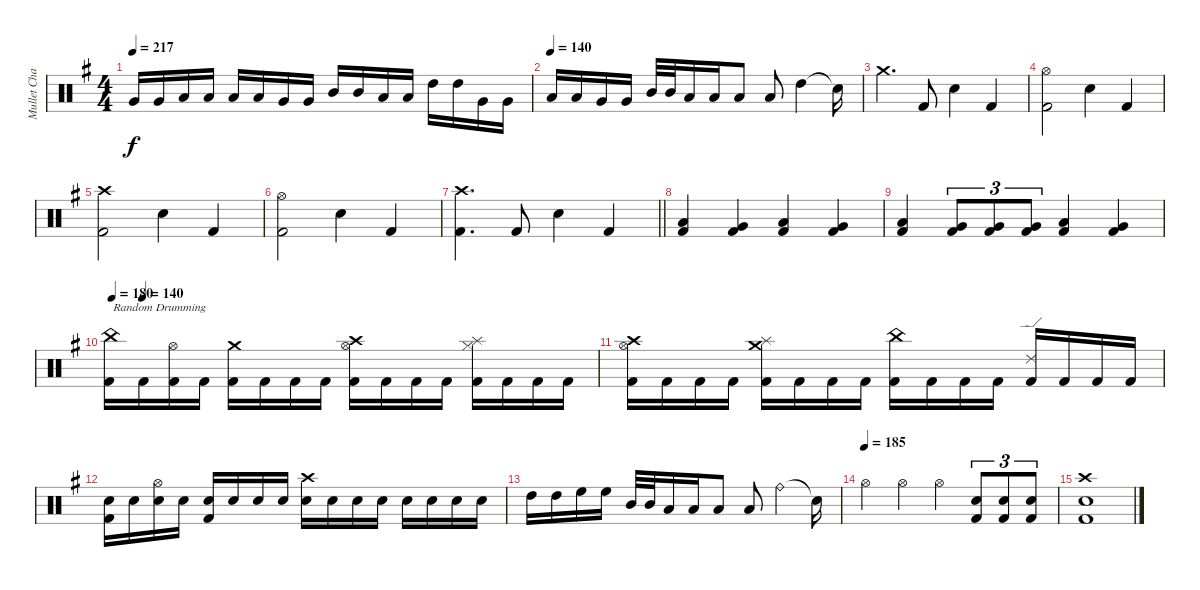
\track ("Mullet Chad" "Mullet Cha") {instrument percussion}
\staff {score}
\articulation defaults
\ts (4 4)
\tempo 217
\clef neutral
\ks g "Very Low Tom (hit)".16{dy f} "Very Low Tom (hit)".16 "Low Floor Tom (hit)".16 "Low Floor Tom (hit)".16 "Low Tom (hit)".16 "Low Tom (hit)".16 "Very Low Tom (hit)".16 "Very Low Tom (hit)".16 "Mid Tom (hit)".16 "Mid Tom (hit)".16 "Low Tom (hit)".16 "Low Tom (hit)".16 "High Tom (hit)".16 "High Tom (hit)".16 "Very Low Tom (hit)".16 "Very Low Tom (hit)".16
|
\tempo (140)
"Low Tom (hit)".16 "Low Tom (hit)".16 "Very Low Tom (hit)".16 "Very Low Tom (hit)".16 "Mid Tom (hit)".32 "Mid Tom (hit)".32 "Low Tom (hit)".16 "Low Floor Tom (hit)".16 "Low Floor Tom (hit)".8 "Low Floor Tom (hit)".8 "High Tom (hit)".4 "Snare (hit)"{t}.16 |
"Crash medium (hit)".4{d} "Kick (hit) 2".8 "Snare (hit) 2".4 "Kick (hit) 2".4 |
("Hi-Hat (open)" "Kick (hit) 2").2 "Snare (hit) 2".4 "Kick (hit) 2".4 |
("Crash high (hit)" "Kick (hit) 2").2 "Snare (hit) 2".4 "Kick (hit) 2".4 |
("Hi-Hat (open)" "Kick (hit) 2").2 "Snare (hit) 2".4 "Kick (hit) 2".4 |
\barLineRight lightlight
("Crash high (hit)" "Kick (hit) 2").4{d} "Kick (hit) 2".8 "Snare (hit) 2".4 "Kick (hit) 2".4 |
("Low Floor Tom (hit)" "Kick (hit) 2").4 ("Very Low Tom (hit)" "Kick (hit) 2").4 ("Low Floor Tom (hit)" "Kick (hit) 2").4 ("Very Low Tom (hit)" "Kick (hit) 2").4 |
("Low Floor Tom (hit)" "Kick (hit) 2").4 ("Very Low Tom (hit)" "Kick (hit) 2").8{tu (3 2)} ("Very Low Tom (hit)" "Kick (hit) 2").8{tu (3 2)} ("Very Low Tom (hit)" "Kick (hit) 2").8{tu (3 2)} ("Low Floor Tom (hit)" "Kick (hit) 2").4 ("Very Low Tom (hit)" "Kick (hit) 2").4 |
\tempo 180
\tempo (140 0.0625)
("China (hit)" "Kick (hit) 2").16{txt "Random Drumming"} "Kick (hit) 2".16 ("Hi-Hat (open)" "Kick (hit) 2").16 "Kick (hit) 2".16 ("Crash medium (hit)" "Kick (hit) 2").16 "Kick (hit) 2".16 "Kick (hit) 2".16 "Kick (hit) 2".16 ("Crash high (hit)" "Hi-Hat (open)" "Kick (hit) 2").16 "Kick (hit) 2".16 "Kick (hit) 2".16 "Kick (hit) 2".16 ("Splash (hit)" "Hi-Hat (closed)" "Kick (hit) 2").16 "Kick (hit) 2".16 "Kick (hit) 2".16 "Kick (hit) 2".16 |
("Hi-Hat (open)" "Crash high (hit)" "Kick (hit) 2").16 "Kick (hit) 2".16 "Kick (hit) 2".16 "Kick (hit) 2".16 ("Splash (hit)" "Crash medium (hit)" "Kick (hit) 2").16 "Kick (hit) 2".16 "Kick (hit) 2".16 "Kick (hit) 2".16 ("China (hit)" "Kick (hit) 2").16 "Kick (hit) 2".16 "Kick (hit) 2".16 "Kick (hit) 2".16 ("Ride (edge) 2" "Kick (hit) 2").16 "Kick (hit) 2".16 "Kick (hit) 2".16 "Kick (hit) 2".16 |
("Snare (hit) 2" "Kick (hit) 2").16 "Snare (hit) 2".16 ("Hi-Hat (open)" "Snare (hit) 2").16 "Snare (hit) 2".16 ("Snare (hit) 2" "Kick (hit) 2").16 "Snare (hit) 2".16 "Snare (hit) 2".16 "Snare (hit) 2".16 ("Crash high (hit)" "Snare (hit) 2").16 "Snare (hit) 2".16 "Snare (hit) 2".16 "Snare (hit) 2".16 "Snare (hit) 2".16 "Snare (hit) 2".16 "Snare (hit) 2".16 "Snare (hit) 2".16 |
"High Tom (hit)".16 "High Tom (hit)".16 "High Floor Tom (hit)".16 "High Floor Tom (hit)".16 "Mid Tom (hit)".32 "Mid Tom (hit)".32 "Low Tom (hit)".16 "Low Floor Tom (hit)".16 "Low Floor Tom (hit)".8 "Low Floor Tom (hit)".8 "Ride (bell)".4 "Snare (hit)"{t}.16 |
\tempo (185)
"Hi-Hat (open)".4 "Hi-Hat (open)".4 "Hi-Hat (open)".4 ("Snare (hit) 2" "Kick (hit) 2").8{tu (3 2)} ("Snare (hit) 2" "Kick (hit) 2").8{tu (3 2)} ("Snare (hit) 2" "Kick (hit) 2").8{tu (3 2)} |
("Crash high (hit)" "Snare (hit) 2" "Kick (hit) 2").1
